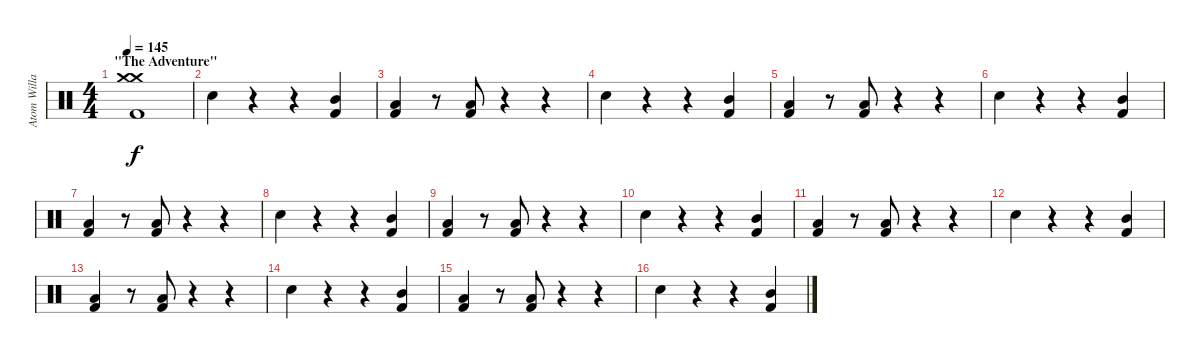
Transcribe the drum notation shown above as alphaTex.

\track ("Atom Willard (Drums)" "Atom Willa") {instrument percussion}
\staff {score}
\articulation defaults
\ts (4 4)
\section ("" "\"The Adventure\"")
\tempo 145
\clef neutral
\ks c
("Crash medium (hit)" "Crash medium (hit)" "Kick (hit) 2").1{dy f} |
"Electric Snare (hit)".4 r.4 r.4 ("Mid Tom (hit)" "Kick (hit) 2").4 |
("Low Tom (hit)" "Kick (hit) 2").4 r.8 ("Low Tom (hit)" "Kick (hit) 2").8 r.4 r.4 |
"Electric Snare (hit)".4 r.4 r.4 ("Mid Tom (hit)" "Kick (hit) 2").4 |
("Low Tom (hit)" "Kick (hit) 2").4 r.8 ("Low Tom (hit)" "Kick (hit) 2").8 r.4 r.4 |
"Electric Snare (hit)".4 r.4 r.4 ("Mid Tom (hit)" "Kick (hit) 2").4 |
("Low Tom (hit)" "Kick (hit) 2").4 r.8 ("Low Tom (hit)" "Kick (hit) 2").8 r.4 r.4 |
"Electric Snare (hit)".4 r.4 r.4 ("Mid Tom (hit)" "Kick (hit) 2").4 |
("Low Tom (hit)" "Kick (hit) 2").4 r.8 ("Low Tom (hit)" "Kick (hit) 2").8 r.4 r.4 |
"Electric Snare (hit)".4 r.4 r.4 ("Mid Tom (hit)" "Kick (hit) 2").4 |
("Low Tom (hit)" "Kick (hit) 2").4 r.8 ("Low Tom (hit)" "Kick (hit) 2").8 r.4 r.4 |
"Electric Snare (hit)".4 r.4 r.4 ("Mid Tom (hit)" "Kick (hit) 2").4 |
("Low Tom (hit)" "Kick (hit) 2").4 r.8 ("Low Tom (hit)" "Kick (hit) 2").8 r.4 r.4 |
"Electric Snare (hit)".4 r.4 r.4 ("Mid Tom (hit)" "Kick (hit) 2").4 |
("Low Tom (hit)" "Kick (hit) 2").4 r.8 ("Low Tom (hit)" "Kick (hit) 2").8 r.4 r.4 |
"Electric Snare (hit)".4 r.4 r.4 ("Mid Tom (hit)" "Kick (hit) 2").4
